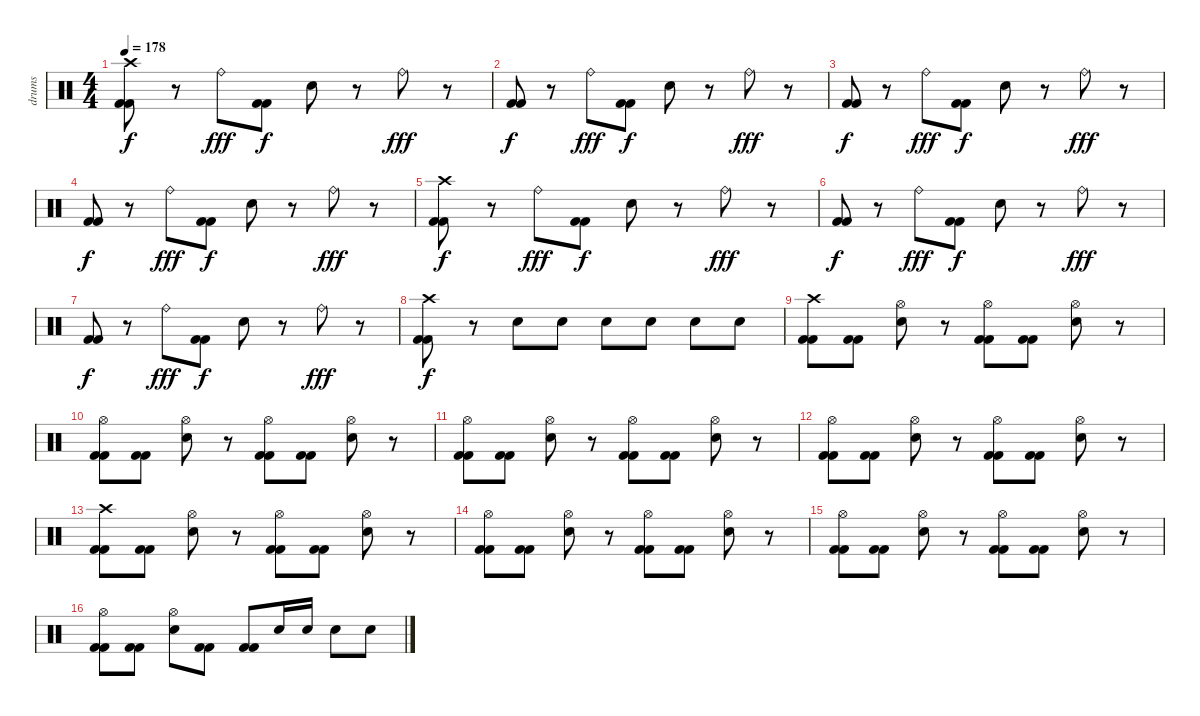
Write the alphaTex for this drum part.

\track ("drums" "drums") {instrument percussion}
\staff {score}
\articulation defaults
\ts (4 4)
\tempo 178
\clef neutral
\ks c
("Crash high (hit)" "Kick (hit) 2" "Kick (hit) 2").8{dy f} r.8 "Ride (bell)".8{dy fff} ("Kick (hit) 2" "Kick (hit) 2").8{dy f} "Electric Snare (hit)".8 r.8 "Ride (bell)".8{dy fff} r.8 |
("Kick (hit) 2" "Kick (hit) 2").8{dy f} r.8 "Ride (bell)".8{dy fff} ("Kick (hit) 2" "Kick (hit) 2").8{dy f} "Electric Snare (hit)".8 r.8 "Ride (bell)".8{dy fff} r.8 |
("Kick (hit) 2" "Kick (hit) 2").8{dy f} r.8 "Ride (bell)".8{dy fff} ("Kick (hit) 2" "Kick (hit) 2").8{dy f} "Electric Snare (hit)".8 r.8 "Ride (bell)".8{dy fff} r.8 |
("Kick (hit) 2" "Kick (hit) 2").8{dy f} r.8 "Ride (bell)".8{dy fff} ("Kick (hit) 2" "Kick (hit) 2").8{dy f} "Electric Snare (hit)".8 r.8 "Ride (bell)".8{dy fff} r.8 |
("Crash high (hit)" "Kick (hit) 2" "Kick (hit) 2").8{dy f} r.8 "Ride (bell)".8{dy fff} ("Kick (hit) 2" "Kick (hit) 2").8{dy f} "Electric Snare (hit)".8 r.8 "Ride (bell)".8{dy fff} r.8 |
("Kick (hit) 2" "Kick (hit) 2").8{dy f} r.8 "Ride (bell)".8{dy fff} ("Kick (hit) 2" "Kick (hit) 2").8{dy f} "Electric Snare (hit)".8 r.8 "Ride (bell)".8{dy fff} r.8 |
("Kick (hit) 2" "Kick (hit) 2").8{dy f} r.8 "Ride (bell)".8{dy fff} ("Kick (hit) 2" "Kick (hit) 2").8{dy f} "Electric Snare (hit)".8 r.8 "Ride (bell)".8{dy fff} r.8 |
("Crash high (hit)" "Kick (hit) 2" "Kick (hit) 2").8{dy f} r.8 "Electric Snare (hit)".8 "Electric Snare (hit)".8 "Electric Snare (hit)".8 "Electric Snare (hit)".8 "Electric Snare (hit)".8 "Electric Snare (hit)".8 |
("Crash high (hit)" "Kick (hit) 2" "Kick (hit) 2").8 ("Kick (hit) 2" "Kick (hit) 2").8 ("Hi-Hat (open)" "Electric Snare (hit)").8 r.8 ("Hi-Hat (open)" "Kick (hit) 2" "Kick (hit) 2").8 ("Kick (hit) 2" "Kick (hit) 2").8 ("Hi-Hat (open)" "Electric Snare (hit)").8 r.8 |
("Hi-Hat (open)" "Kick (hit) 2" "Kick (hit) 2").8 ("Kick (hit) 2" "Kick (hit) 2").8 ("Hi-Hat (open)" "Electric Snare (hit)").8 r.8 ("Hi-Hat (open)" "Kick (hit) 2" "Kick (hit) 2").8 ("Kick (hit) 2" "Kick (hit) 2").8 ("Hi-Hat (open)" "Electric Snare (hit)").8 r.8 |
("Hi-Hat (open)" "Kick (hit) 2" "Kick (hit) 2").8 ("Kick (hit) 2" "Kick (hit) 2").8 ("Hi-Hat (open)" "Electric Snare (hit)").8 r.8 ("Hi-Hat (open)" "Kick (hit) 2" "Kick (hit) 2").8 ("Kick (hit) 2" "Kick (hit) 2").8 ("Hi-Hat (open)" "Electric Snare (hit)").8 r.8 |
("Hi-Hat (open)" "Kick (hit) 2" "Kick (hit) 2").8 ("Kick (hit) 2" "Kick (hit) 2").8 ("Hi-Hat (open)" "Electric Snare (hit)").8 r.8 ("Hi-Hat (open)" "Kick (hit) 2" "Kick (hit) 2").8 ("Kick (hit) 2" "Kick (hit) 2").8 ("Hi-Hat (open)" "Electric Snare (hit)").8 r.8 |
("Crash high (hit)" "Kick (hit) 2" "Kick (hit) 2").8 ("Kick (hit) 2" "Kick (hit) 2").8 ("Hi-Hat (open)" "Electric Snare (hit)").8 r.8 ("Hi-Hat (open)" "Kick (hit) 2" "Kick (hit) 2").8 ("Kick (hit) 2" "Kick (hit) 2").8 ("Hi-Hat (open)" "Electric Snare (hit)").8 r.8 |
("Hi-Hat (open)" "Kick (hit) 2" "Kick (hit) 2").8 ("Kick (hit) 2" "Kick (hit) 2").8 ("Hi-Hat (open)" "Electric Snare (hit)").8 r.8 ("Hi-Hat (open)" "Kick (hit) 2" "Kick (hit) 2").8 ("Kick (hit) 2" "Kick (hit) 2").8 ("Hi-Hat (open)" "Electric Snare (hit)").8 r.8 |
("Hi-Hat (open)" "Kick (hit) 2" "Kick (hit) 2").8 ("Kick (hit) 2" "Kick (hit) 2").8 ("Hi-Hat (open)" "Electric Snare (hit)").8 r.8 ("Hi-Hat (open)" "Kick (hit) 2" "Kick (hit) 2").8 ("Kick (hit) 2" "Kick (hit) 2").8 ("Hi-Hat (open)" "Electric Snare (hit)").8 r.8 |
("Hi-Hat (open)" "Kick (hit) 2" "Kick (hit) 2").8 ("Kick (hit) 2" "Kick (hit) 2").8 ("Hi-Hat (open)" "Electric Snare (hit)").8 ("Kick (hit) 2" "Kick (hit) 2").8 ("Kick (hit) 2" "Kick (hit) 2").8 "Electric Snare (hit)".16 "Electric Snare (hit)".16 "Electric Snare (hit)".8 "Electric Snare (hit)".8
